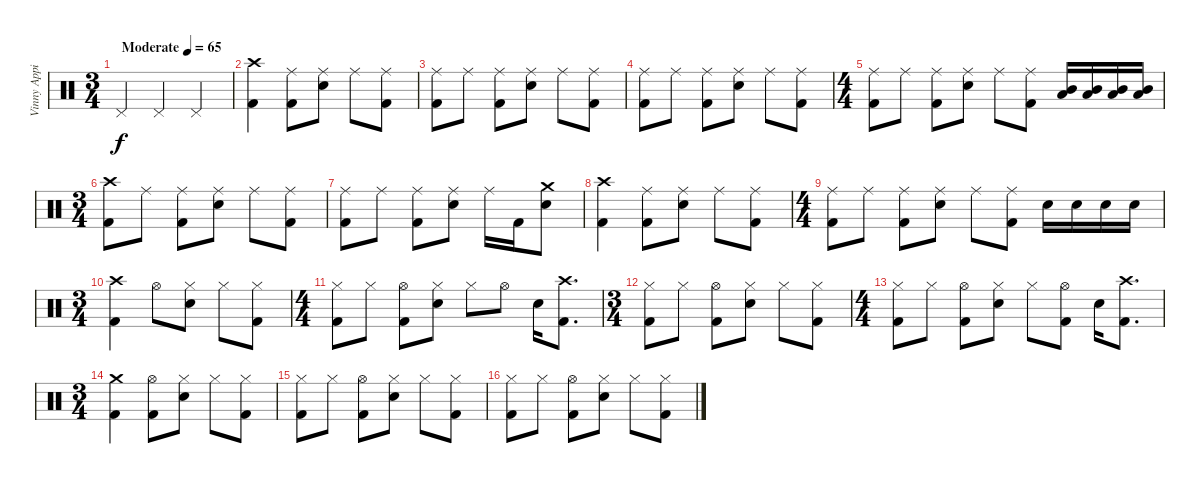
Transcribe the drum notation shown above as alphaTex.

\track ("Vinny Appice" "Vinny Appi") {instrument percussion}
\staff {score}
\articulation defaults
\ts (3 4)
\tempo (65 "Moderate")
\clef neutral
\ks c "Pedal Hi-Hat (hit)".4{dy f} "Pedal Hi-Hat (hit)".4 "Pedal Hi-Hat (hit)".4
|
("Crash high (hit)" "Kick (hit) 2").4 ("Ride (middle)" "Kick (hit) 2").8 ("Ride (middle)" "Snare (hit) 2").8 "Ride (middle)".8 ("Ride (middle)" "Kick (hit) 2").8 |
("Ride (middle)" "Kick (hit) 2").8 "Ride (middle)".8 ("Ride (middle)" "Kick (hit) 2").8 ("Ride (middle)" "Snare (hit) 2").8 "Ride (middle)".8 ("Ride (middle)" "Kick (hit) 2").8 |
("Ride (middle)" "Kick (hit) 2").8 "Ride (middle)".8 ("Ride (middle)" "Kick (hit) 2").8 ("Ride (middle)" "Snare (hit) 2").8 "Ride (middle)".8 ("Ride (middle)" "Kick (hit) 2").8 |
\ts (4 4)
("Ride (middle)" "Kick (hit) 2").8 "Ride (middle)".8 ("Ride (middle)" "Kick (hit) 2").8 ("Ride (middle)" "Snare (hit) 2").8 "Ride (middle)".8 ("Ride (middle)" "Kick (hit) 2").8 ("Mid Tom (hit)" "Low Tom (hit)").16 ("Mid Tom (hit)" "Low Tom (hit)").16 ("Mid Tom (hit)" "Low Tom (hit)").16 ("Mid Tom (hit)" "Low Tom (hit)").16 |
\ts (3 4)
("Crash high (hit)" "Kick (hit) 2").8 "Ride (middle)".8 ("Ride (middle)" "Kick (hit) 2").8 ("Ride (middle)" "Snare (hit) 2").8 "Ride (middle)".8 ("Ride (middle)" "Kick (hit) 2").8 |
("Ride (middle)" "Kick (hit) 2").8 "Ride (middle)".8 ("Ride (middle)" "Kick (hit) 2").8 ("Ride (middle)" "Snare (hit) 2").8 "Ride (middle)".16 "Kick (hit) 2".16 ("Crash medium (hit)" "Snare (hit) 2").8 |
("Crash high (hit)" "Kick (hit) 2").4 ("Ride (middle)" "Kick (hit) 2").8 ("Ride (middle)" "Snare (hit) 2").8 "Ride (middle)".8 ("Ride (middle)" "Kick (hit) 2").8 |
\ts (4 4)
("Ride (middle)" "Kick (hit) 2").8 "Ride (middle)".8 ("Ride (middle)" "Kick (hit) 2").8 ("Ride (middle)" "Snare (hit) 2").8 "Ride (middle)".8 ("Ride (middle)" "Kick (hit) 2").8 "Snare (hit) 2".16 "Snare (hit) 2".16 "Snare (hit) 2".16 "Snare (hit) 2".16 |
\ts (3 4)
("Crash high (hit)" "Kick (hit) 2").4 "Hi-Hat (open)".8 ("Hi-Hat (closed)" "Snare (hit) 2").8 "Hi-Hat (closed)".8 ("Hi-Hat (closed)" "Kick (hit) 2").8 |
\ts (4 4)
("Hi-Hat (closed)" "Kick (hit) 2").8 "Hi-Hat (closed)".8 ("Hi-Hat (open)" "Kick (hit) 2").8 ("Hi-Hat (closed)" "Snare (hit) 2").8 "Hi-Hat (closed)".8 "Hi-Hat (open)".8 "Snare (hit) 2".16 ("Crash high (hit)" "Kick (hit) 2").8{d} |
\ts (3 4)
("Hi-Hat (closed)" "Kick (hit) 2").8 "Hi-Hat (closed)".8 ("Hi-Hat (open)" "Kick (hit) 2").8 ("Hi-Hat (closed)" "Snare (hit) 2").8 "Hi-Hat (closed)".8 ("Hi-Hat (closed)" "Kick (hit) 2").8 |
\ts (4 4)
("Hi-Hat (closed)" "Kick (hit) 2").8 "Hi-Hat (closed)".8 ("Hi-Hat (open)" "Kick (hit) 2").8 ("Hi-Hat (closed)" "Snare (hit) 2").8 "Hi-Hat (closed)".8 ("Hi-Hat (open)" "Kick (hit) 2").8 "Snare (hit) 2".16 ("Crash high (hit)" "Kick (hit) 2").8{d} |
\ts (3 4)
("Crash medium (hit)" "Kick (hit) 2").4 ("Hi-Hat (open)" "Kick (hit) 2").8 ("Hi-Hat (closed)" "Snare (hit) 2").8 "Hi-Hat (closed)".8 ("Hi-Hat (closed)" "Kick (hit) 2").8 |
("Hi-Hat (closed)" "Kick (hit) 2").8 "Hi-Hat (closed)".8 ("Hi-Hat (open)" "Kick (hit) 2").8 ("Hi-Hat (closed)" "Snare (hit) 2").8 "Hi-Hat (closed)".8 ("Hi-Hat (closed)" "Kick (hit) 2").8 |
("Hi-Hat (closed)" "Kick (hit) 2").8 "Hi-Hat (closed)".8 ("Hi-Hat (open)" "Kick (hit) 2").8 ("Hi-Hat (closed)" "Snare (hit) 2").8 "Hi-Hat (closed)".8 ("Hi-Hat (closed)" "Kick (hit) 2").8
